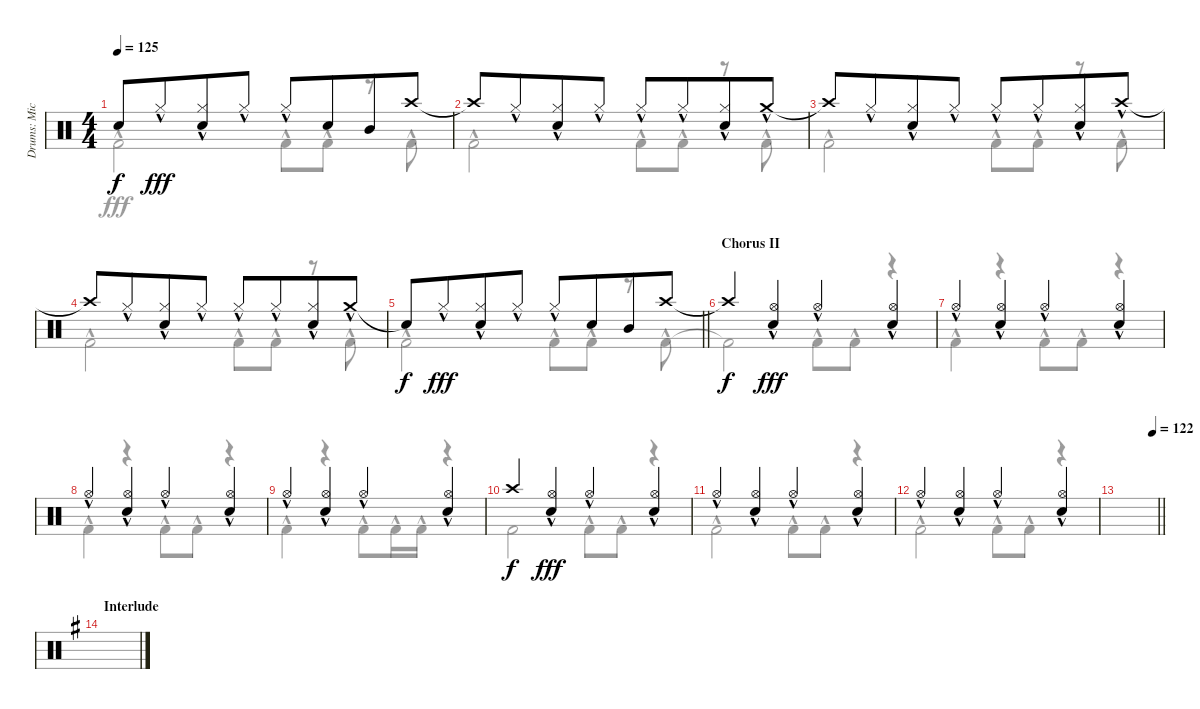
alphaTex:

\track ("Drums: Mick" "Drums: Mic") {instrument percussion}
\staff {score}
\articulation defaults
\voice
\ts (4 4)
\tempo 125
\clef neutral
\ks c "Snare (hit)"{t}.8{dy f} "Hi-Hat (closed)"{hac}.8{dy fff beam merge}
("Hi-Hat (closed)"{hac} "Snare (hit) 2"{hac}).8 "Hi-Hat (closed)"{hac}.8 "Hi-Hat (closed)"{hac}.8 "Snare (hit) 2".8{beam merge} "Mid Tom (hit)".8 "Crash high (hit)".8 |
"Crash high (hit)"{t}.8 "Hi-Hat (closed)"{hac}.8{beam merge} ("Hi-Hat (closed)"{hac} "Snare (hit) 2"{hac}).8 "Hi-Hat (closed)"{hac}.8 "Hi-Hat (closed)"{hac}.8 "Hi-Hat (closed)"{hac}.8{beam merge} ("Hi-Hat (closed)"{hac} "Snare (hit) 2"{hac}).8 "Crash medium (hit)"{hac}.8 |
"Crash high (hit)"{t}.8 "Hi-Hat (closed)"{hac}.8{beam merge} ("Hi-Hat (closed)"{hac} "Snare (hit) 2"{hac}).8 "Hi-Hat (closed)"{hac}.8 "Hi-Hat (closed)"{hac}.8 "Hi-Hat (closed)"{hac}.8{beam merge} ("Hi-Hat (closed)"{hac} "Snare (hit) 2"{hac}).8 "Crash high (hit)"{hac}.8 |
"Crash high (hit)"{t}.8 "Hi-Hat (closed)"{hac}.8{beam merge} ("Hi-Hat (closed)"{hac} "Snare (hit) 2"{hac}).8 "Hi-Hat (closed)"{hac}.8 "Hi-Hat (closed)"{hac}.8 "Hi-Hat (closed)"{hac}.8{beam merge} ("Hi-Hat (closed)"{hac} "Snare (hit) 2"{hac}).8 "Crash medium (hit)"{hac}.8 |
\barLineRight lightlight "Snare (hit)"{t}.8{dy f} "Hi-Hat (closed)"{hac}.8{dy fff beam merge}
("Hi-Hat (closed)"{hac} "Snare (hit) 2"{hac}).8 "Hi-Hat (closed)"{hac}.8 "Hi-Hat (closed)"{hac}.8 "Snare (hit) 2".8{beam merge} "Mid Tom (hit)".8 "Crash high (hit)".8 |
\section ("" "Chorus II")
"Crash high (hit)"{t}.4{dy f} ("Hi-Hat (open)"{hac} "Snare (hit) 2"{hac}).4{dy fff} "Hi-Hat (open)"{hac}.4 ("Hi-Hat (open)"{hac} "Snare (hit) 2"{hac}).4 |
"Hi-Hat (open)"{hac}.4 ("Hi-Hat (open)"{hac} "Snare (hit) 2"{hac}).4 "Hi-Hat (open)"{hac}.4 ("Hi-Hat (open)"{hac} "Snare (hit) 2"{hac}).4 |
"Hi-Hat (open)"{hac}.4 ("Hi-Hat (open)"{hac} "Snare (hit) 2"{hac}).4 "Hi-Hat (open)"{hac}.4 ("Hi-Hat (open)"{hac} "Snare (hit) 2"{hac}).4 |
"Hi-Hat (open)"{hac}.4 ("Hi-Hat (open)"{hac} "Snare (hit) 2"{hac}).4 "Hi-Hat (open)"{hac}.4 ("Hi-Hat (open)"{hac} "Snare (hit) 2"{hac}).4 |
"Crash high (hit)".4{dy f} ("Hi-Hat (open)"{hac} "Snare (hit) 2"{hac}).4{dy fff} "Hi-Hat (open)"{hac}.4 ("Hi-Hat (open)"{hac} "Snare (hit) 2"{hac}).4 |
"Hi-Hat (open)"{hac}.4 ("Hi-Hat (open)"{hac} "Snare (hit) 2"{hac}).4 "Hi-Hat (open)"{hac}.4 ("Hi-Hat (open)"{hac} "Snare (hit) 2"{hac}).4 |
"Hi-Hat (open)"{hac}.4 ("Hi-Hat (open)"{hac} "Snare (hit) 2"{hac}).4 "Hi-Hat (open)"{hac}.4 ("Hi-Hat (open)"{hac} "Snare (hit) 2"{hac}).4 |
\tempo (122 0.875)
\barLineRight lightlight
|
\section ("" "Interlude")
\ks g
|
|
\voice
\clef neutral
\ottava regular
\simile none
\ks c "Kick (hit) 2"{hac}.2{dy fff} "Kick (hit) 2"{hac}.8 "Kick (hit) 2"{hac}.8
r.8 "Kick (hit) 2"{hac}.8 |
"Kick (hit) 2"{hac}.2 "Kick (hit) 2"{hac}.8 "Kick (hit) 2"{hac}.8 r.8 "Kick (hit) 2"{hac}.8 |
"Kick (hit) 2"{hac}.2 "Kick (hit) 2"{hac}.8 "Kick (hit) 2"{hac}.8 r.8 "Kick (hit) 2"{hac}.8 |
"Kick (hit) 2"{hac}.2 "Kick (hit) 2"{hac}.8 "Kick (hit) 2"{hac}.8 r.8 "Kick (hit) 2"{hac}.8 |
\barLineRight lightlight "Kick (hit) 2"{hac}.2 "Kick (hit) 2"{hac}.8 "Kick (hit) 2"{hac}.8
r.8 "Kick (hit) 2"{hac}.8 |
"Kick (hit) 2"{t}.2 "Kick (hit) 2"{hac}.8 "Kick (hit) 2"{hac}.8 r.4 |
"Kick (hit) 2"{hac}.4 r.4 "Kick (hit) 2"{hac}.8 "Kick (hit) 2"{hac}.8 r.4 |
"Kick (hit) 2"{hac}.4 r.4 "Kick (hit) 2"{hac}.8 "Kick (hit) 2"{hac}.8 r.4 |
"Kick (hit) 2"{hac}.4 r.4 "Kick (hit) 2"{hac}.8 "Kick (hit) 2"{hac}.16 "Kick (hit) 2"{hac}.16 r.4 |
"Kick (hit) 2".2 "Kick (hit) 2"{hac}.8 "Kick (hit) 2"{hac}.8 r.4 |
"Kick (hit) 2"{hac}.2 "Kick (hit) 2"{hac}.8 "Kick (hit) 2"{hac}.8 r.4 |
"Kick (hit) 2"{hac}.2 "Kick (hit) 2"{hac}.8 "Kick (hit) 2"{hac}.8 r.4 |
\barLineRight lightlight
|
\ks g
|
|
